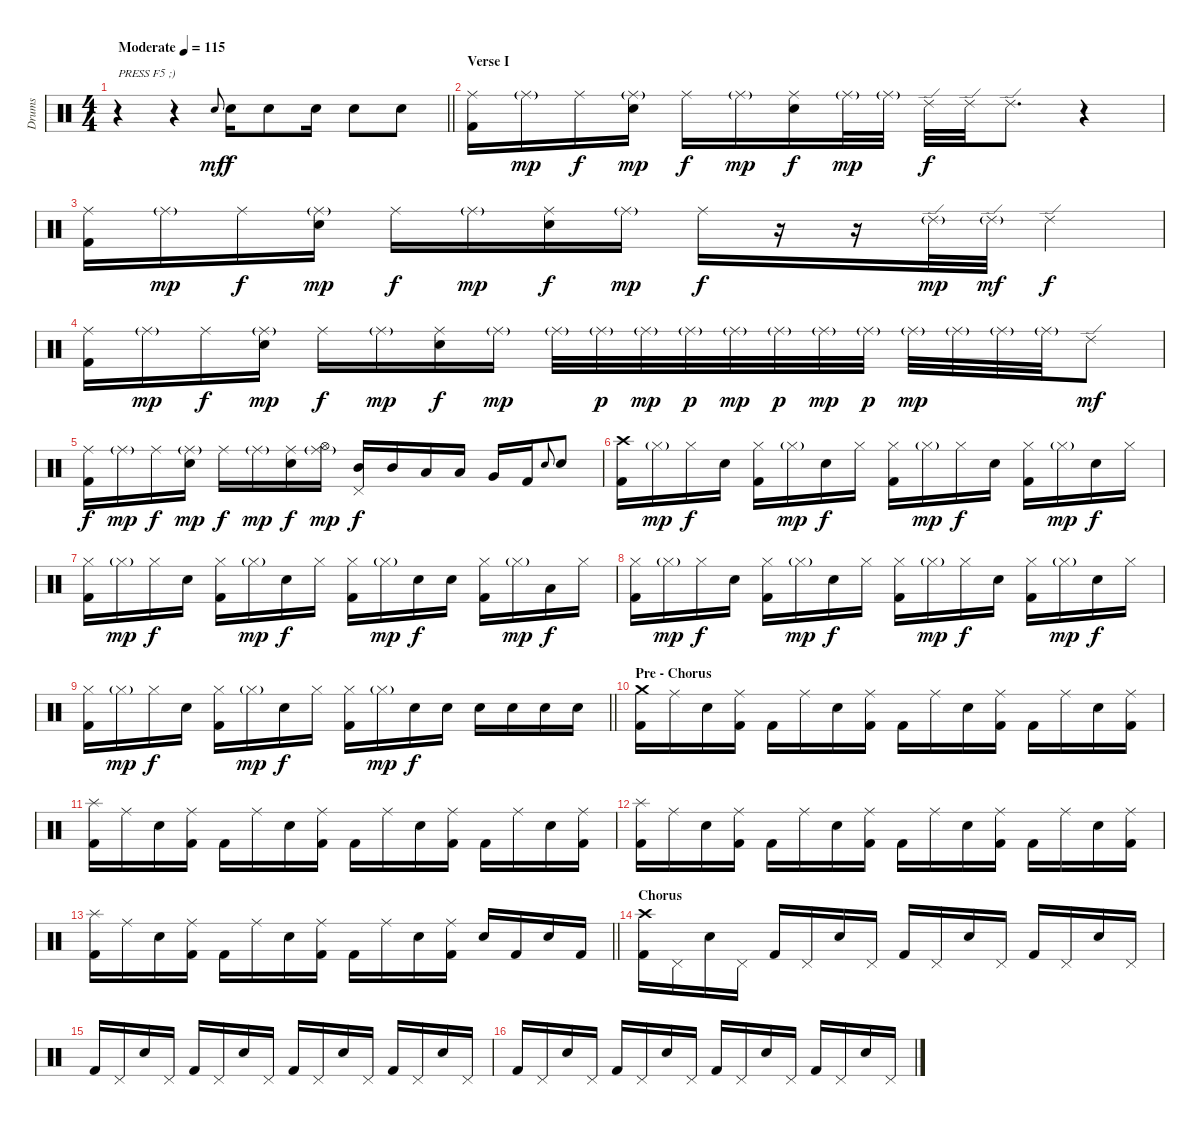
\track ("Drums" "Drums") {instrument percussion}
\staff {score}
\articulation defaults
\ts (4 4)
\tempo (115 "Moderate")
\clef neutral
\barLineRight lightlight
\ks c
r.4{txt "PRESS F5 ;)" dy mf} r.4 "Electric Snare (hit)".8{gr onbeat} "Electric Snare (hit)".16{dy f} "Electric Snare (hit)".8 "Electric Snare (hit)".16 "Electric Snare (hit)".8 "Electric Snare (hit)".8 |
\section ("" "Verse I")
("Ride (middle)" "Kick (hit) 2").16 "Ride (middle)"{g}.16{dy mp} "Ride (middle)".16{dy f} ("Ride (middle)"{g} "Electric Snare (hit)").16{dy mp} "Ride (middle)".16{dy f} "Ride (middle)"{g}.16{dy mp} ("Ride (middle)" "Electric Snare (hit)").16{dy f} "Ride (middle)"{g}.32{dy mp} "Ride (middle)"{g}.32 "Ride (edge) 2".32{dy f} "Ride (edge) 2".32 "Ride (edge) 2".8{d} r.4 |
("Ride (middle)" "Kick (hit) 2").16 "Ride (middle)"{g}.16{dy mp} "Ride (middle)".16{dy f} ("Ride (middle)"{g} "Electric Snare (hit)").16{dy mp} "Ride (middle)".16{dy f} "Ride (middle)"{g}.16{dy mp} ("Ride (middle)" "Electric Snare (hit)").16{dy f} "Ride (middle)"{g}.16{dy mp} "Ride (middle)".16{dy f} r.16 r.16 "Ride (edge) 2"{g}.32{dy mp} "Ride (edge) 2"{g}.32{dy mf} "Ride (edge) 2".4{dy f} |
("Ride (middle)" "Kick (hit) 2").16 "Ride (middle)"{g}.16{dy mp} "Ride (middle)".16{dy f} ("Ride (middle)"{g} "Electric Snare (hit)").16{dy mp} "Ride (middle)".16{dy f} "Ride (middle)"{g}.16{dy mp} ("Ride (middle)" "Electric Snare (hit)").16{dy f} "Ride (middle)"{g}.16{dy mp} "Ride (middle)"{g}.32 "Ride (middle)"{g}.32{dy p} "Ride (middle)"{g}.32{dy mp} "Ride (middle)"{g}.32{dy p} "Ride (middle)"{g}.32{dy mp} "Ride (middle)"{g}.32{dy p} "Ride (middle)"{g}.32{dy mp} "Ride (middle)"{g}.32{dy p} "Ride (middle)"{g}.32{dy mp} "Ride (middle)"{g}.32 "Ride (middle)"{g}.32 "Ride (middle)"{g}.32 "Ride (edge) 2".8{dy mf} |
("Ride (middle)" "Kick (hit) 2").16{dy f} "Ride (middle)"{g}.16{dy mp} "Ride (middle)".16{dy f} ("Ride (middle)"{g} "Electric Snare (hit)").16{dy mp} "Ride (middle)".16{dy f} "Ride (middle)"{g}.16{dy mp} ("Ride (middle)" "Electric Snare (hit)").16{dy f} ("Ride (middle)"{g} "Hi-Hat (open)").16{dy mp} ("Mid Tom (hit)" "Pedal Hi-Hat (hit)").16{dy f} "Mid Tom (hit)".16 "Low Tom (hit)".16 "Low Tom (hit)".16 "Very Low Tom (hit)".16 "Kick (hit) 2".16 "Electric Snare (hit)".8{gr onbeat} "Electric Snare (hit)".8 |
("Crash high (hit)" "Kick (hit) 2").16 "Hi-Hat (closed)"{g}.16{dy mp} "Hi-Hat (closed)".16{dy f} "Electric Snare (hit)".16 ("Hi-Hat (closed)" "Kick (hit) 2").16 "Hi-Hat (closed)"{g}.16{dy mp} "Electric Snare (hit)".16{dy f} "Hi-Hat (closed)".16 ("Hi-Hat (closed)" "Kick (hit) 2").16 "Hi-Hat (closed)"{g}.16{dy mp} "Hi-Hat (closed)".16{dy f} "Electric Snare (hit)".16 ("Hi-Hat (closed)" "Kick (hit) 2").16 "Hi-Hat (closed)"{g}.16{dy mp} "Electric Snare (hit)".16{dy f} "Hi-Hat (closed)".16 |
("Hi-Hat (closed)" "Kick (hit) 2").16 "Hi-Hat (closed)"{g}.16{dy mp} "Hi-Hat (closed)".16{dy f} "Electric Snare (hit)".16 ("Hi-Hat (closed)" "Kick (hit) 2").16 "Hi-Hat (closed)"{g}.16{dy mp} "Electric Snare (hit)".16{dy f} "Hi-Hat (closed)".16 ("Hi-Hat (closed)" "Kick (hit) 2").16 "Hi-Hat (closed)"{g}.16{dy mp} "Electric Snare (hit)".16{dy f} "Electric Snare (hit)".16 ("Hi-Hat (closed)" "Kick (hit) 2").16 "Hi-Hat (closed)"{g}.16{dy mp} "Low Tom (hit)".16{dy f} "Hi-Hat (closed)".16 |
("Hi-Hat (closed)" "Kick (hit) 2").16 "Hi-Hat (closed)"{g}.16{dy mp} "Hi-Hat (closed)".16{dy f} "Electric Snare (hit)".16 ("Hi-Hat (closed)" "Kick (hit) 2").16 "Hi-Hat (closed)"{g}.16{dy mp} "Electric Snare (hit)".16{dy f} "Hi-Hat (closed)".16 ("Hi-Hat (closed)" "Kick (hit) 2").16 "Hi-Hat (closed)"{g}.16{dy mp} "Hi-Hat (closed)".16{dy f} "Electric Snare (hit)".16 ("Hi-Hat (closed)" "Kick (hit) 2").16 "Hi-Hat (closed)"{g}.16{dy mp} "Electric Snare (hit)".16{dy f} "Hi-Hat (closed)".16 |
\barLineRight lightlight
("Hi-Hat (closed)" "Kick (hit) 2").16 "Hi-Hat (closed)"{g}.16{dy mp} "Hi-Hat (closed)".16{dy f} "Electric Snare (hit)".16 ("Hi-Hat (closed)" "Kick (hit) 2").16 "Hi-Hat (closed)"{g}.16{dy mp} "Electric Snare (hit)".16{dy f} "Hi-Hat (closed)".16 ("Hi-Hat (closed)" "Kick (hit) 2").16 "Hi-Hat (closed)"{g}.16{dy mp} "Electric Snare (hit)".16{dy f} "Electric Snare (hit)".16 "Electric Snare (hit)".16 "Electric Snare (hit)".16 "Electric Snare (hit)".16 "Electric Snare (hit)".16 |
\section ("" "Pre - Chorus")
("Crash medium (hit)" "Kick (hit) 2").16 "Ride (middle)".16 "Electric Snare (hit)".16 ("Ride (middle)" "Kick (hit) 2").16 "Kick (hit) 2".16 "Ride (middle)".16 "Electric Snare (hit)".16 ("Ride (middle)" "Kick (hit) 2").16 "Kick (hit) 2".16 "Ride (middle)".16 "Electric Snare (hit)".16 ("Ride (middle)" "Kick (hit) 2").16 "Kick (hit) 2".16 "Ride (middle)".16 "Electric Snare (hit)".16 ("Ride (middle)" "Kick (hit) 2").16 |
("Splash (hit)" "Kick (hit) 2").16 "Ride (middle)".16 "Electric Snare (hit)".16 ("Ride (middle)" "Kick (hit) 2").16 "Kick (hit) 2".16 "Ride (middle)".16 "Electric Snare (hit)".16 ("Ride (middle)" "Kick (hit) 2").16 "Kick (hit) 2".16 "Ride (middle)".16 "Electric Snare (hit)".16 ("Ride (middle)" "Kick (hit) 2").16 "Kick (hit) 2".16 "Ride (middle)".16 "Electric Snare (hit)".16 ("Ride (middle)" "Kick (hit) 2").16 |
("Splash (hit)" "Kick (hit) 2").16 "Ride (middle)".16 "Electric Snare (hit)".16 ("Ride (middle)" "Kick (hit) 2").16 "Kick (hit) 2".16 "Ride (middle)".16 "Electric Snare (hit)".16 ("Ride (middle)" "Kick (hit) 2").16 "Kick (hit) 2".16 "Ride (middle)".16 "Electric Snare (hit)".16 ("Ride (middle)" "Kick (hit) 2").16 "Kick (hit) 2".16 "Ride (middle)".16 "Electric Snare (hit)".16 ("Ride (middle)" "Kick (hit) 2").16 |
\barLineRight lightlight
("Splash (hit)" "Kick (hit) 2").16 "Ride (middle)".16 "Electric Snare (hit)".16 ("Ride (middle)" "Kick (hit) 2").16 "Kick (hit) 2".16 "Ride (middle)".16 "Electric Snare (hit)".16 ("Ride (middle)" "Kick (hit) 2").16 "Kick (hit) 2".16 "Ride (middle)".16 "Electric Snare (hit)".16 ("Ride (middle)" "Kick (hit) 2").16 "Electric Snare (hit)".16 "Kick (hit) 2".16 "Electric Snare (hit)".16 "Kick (hit) 2".16 |
\section ("" "Chorus")
("Crash high (hit)" "Kick (hit) 2").16 "Pedal Hi-Hat (hit)".16 "Electric Snare (hit)".16 "Pedal Hi-Hat (hit)".16 "Kick (hit) 2".16 "Pedal Hi-Hat (hit)".16 "Electric Snare (hit)".16 "Pedal Hi-Hat (hit)".16 "Kick (hit) 2".16 "Pedal Hi-Hat (hit)".16 "Electric Snare (hit)".16 "Pedal Hi-Hat (hit)".16 "Kick (hit) 2".16 "Pedal Hi-Hat (hit)".16 "Electric Snare (hit)".16 "Pedal Hi-Hat (hit)".16 |
"Kick (hit) 2".16 "Pedal Hi-Hat (hit)".16 "Electric Snare (hit)".16 "Pedal Hi-Hat (hit)".16 "Kick (hit) 2".16 "Pedal Hi-Hat (hit)".16 "Electric Snare (hit)".16 "Pedal Hi-Hat (hit)".16 "Kick (hit) 2".16 "Pedal Hi-Hat (hit)".16 "Electric Snare (hit)".16 "Pedal Hi-Hat (hit)".16 "Kick (hit) 2".16 "Pedal Hi-Hat (hit)".16 "Electric Snare (hit)".16 "Pedal Hi-Hat (hit)".16 |
"Kick (hit) 2".16 "Pedal Hi-Hat (hit)".16 "Electric Snare (hit)".16 "Pedal Hi-Hat (hit)".16 "Kick (hit) 2".16 "Pedal Hi-Hat (hit)".16 "Electric Snare (hit)".16 "Pedal Hi-Hat (hit)".16 "Kick (hit) 2".16 "Pedal Hi-Hat (hit)".16 "Electric Snare (hit)".16 "Pedal Hi-Hat (hit)".16 "Kick (hit) 2".16 "Pedal Hi-Hat (hit)".16 "Electric Snare (hit)".16 "Pedal Hi-Hat (hit)".16
